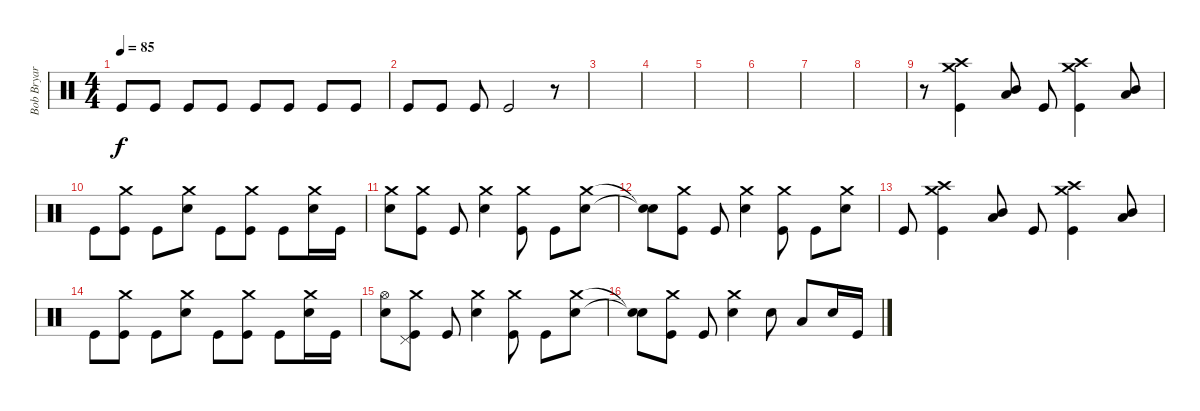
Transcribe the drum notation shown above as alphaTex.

\track ("Bob Bryar (Drums)" "Bob Bryar ") {instrument percussion}
\staff {score}
\articulation defaults
\ts (4 4)
\tempo 85
\clef neutral
\ks c "Kick (hit)".8{dy f} "Kick (hit)".8 "Kick (hit)".8 "Kick (hit)".8 "Kick (hit)".8 "Kick (hit)".8 "Kick (hit)".8 "Kick (hit)".8
|
"Kick (hit)".8 "Kick (hit)".8 "Kick (hit)".8 "Kick (hit)".2 r.8 |
|
|
|
|
|
|
r.8 ("Crash high (hit)" "Crash medium (hit)" "Kick (hit)").4 ("Mid Tom (hit)" "Low Floor Tom (hit)").8 "Kick (hit)".8 ("Crash high (hit)" "Crash medium (hit)" "Kick (hit)").4 ("Mid Tom (hit)" "Low Floor Tom (hit)").8 |
"Kick (hit)".8 ("Crash medium (hit)" "Kick (hit)").8 "Kick (hit)".8 ("Crash medium (hit)" "Electric Snare (hit)").8 "Kick (hit)".8 ("Crash medium (hit)" "Kick (hit)").8 "Kick (hit)".8 ("Crash medium (hit)" "Electric Snare (hit)").16 "Kick (hit)".16 |
("Crash medium (hit)" "Electric Snare (hit)").8 ("Crash medium (hit)" "Kick (hit)").8 "Kick (hit)".8 ("Crash medium (hit)" "Electric Snare (hit)").4 ("Crash medium (hit)" "Kick (hit)").8 "Kick (hit)".8 ("Crash medium (hit)" "Electric Snare (hit)").8 |
("Snare (hit)"{t} "Snare (hit)"{t}).8 ("Crash medium (hit)" "Kick (hit)").8 "Kick (hit)".8 ("Crash medium (hit)" "Electric Snare (hit)").4 ("Crash medium (hit)" "Kick (hit)").8 "Kick (hit)".8 ("Crash medium (hit)" "Electric Snare (hit)").8 |
"Kick (hit)".8 ("Crash high (hit)" "Crash medium (hit)" "Kick (hit)").4 ("Mid Tom (hit)" "Low Floor Tom (hit)").8 "Kick (hit)".8 ("Crash high (hit)" "Crash medium (hit)" "Kick (hit)").4 ("Mid Tom (hit)" "Low Floor Tom (hit)").8 |
"Kick (hit)".8 ("Crash medium (hit)" "Kick (hit)").8 "Kick (hit)".8 ("Crash medium (hit)" "Electric Snare (hit)").8 "Kick (hit)".8 ("Crash medium (hit)" "Kick (hit)").8 "Kick (hit)".8 ("Crash medium (hit)" "Electric Snare (hit)").16 "Kick (hit)".16 |
("Hi-Hat (open)" "Electric Snare (hit)").8 ("Crash medium (hit)" "Pedal Hi-Hat (hit)" "Kick (hit)").8 "Kick (hit)".8 ("Crash medium (hit)" "Electric Snare (hit)").4 ("Crash medium (hit)" "Kick (hit)").8 "Kick (hit)".8 ("Crash medium (hit)" "Electric Snare (hit)").8 |
("Snare (hit)"{t} "Snare (hit)"{t}).8 ("Crash medium (hit)" "Kick (hit)").8 "Kick (hit)".8 ("Crash medium (hit)" "Electric Snare (hit)").4 "Electric Snare (hit)".8 "Low Floor Tom (hit)".8 "Electric Snare (hit)".16 "Kick (hit)".16
